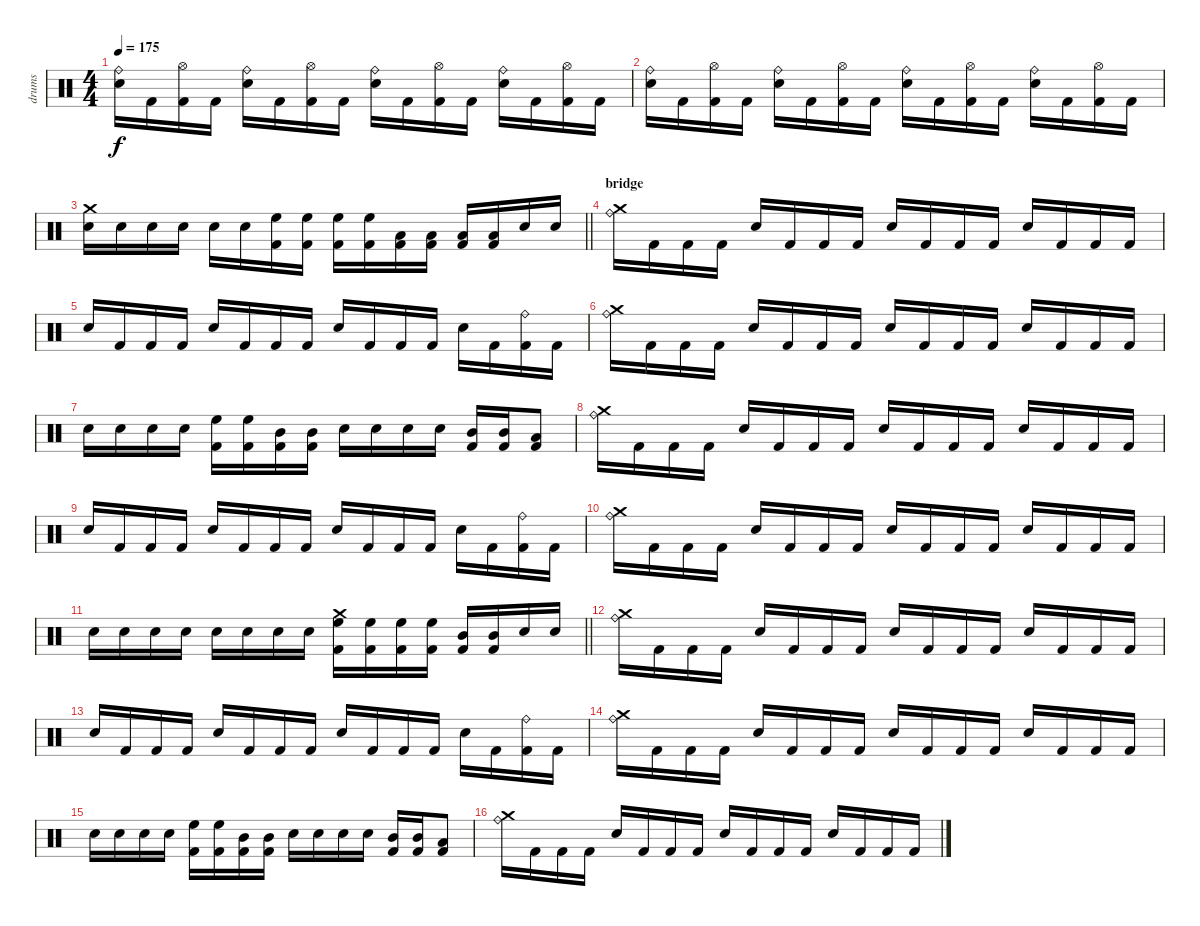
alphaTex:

\track ("drums" "drums") {instrument percussion}
\staff {score}
\articulation defaults
\ts (4 4)
\tempo 175
\clef neutral
\ks c
("Ride (bell)" "Snare (hit) 2").16{dy f} "Kick (hit) 2".16 ("Hi-Hat (open)" "Kick (hit) 2").16 "Kick (hit) 2".16 ("Ride (bell)" "Snare (hit) 2").16 "Kick (hit) 2".16 ("Hi-Hat (open)" "Kick (hit) 2").16 "Kick (hit) 2".16 ("Ride (bell)" "Snare (hit) 2").16 "Kick (hit) 2".16 ("Hi-Hat (open)" "Kick (hit) 2").16 "Kick (hit) 2".16 ("Ride (bell)" "Snare (hit) 2").16 "Kick (hit) 2".16 ("Hi-Hat (open)" "Kick (hit) 2").16 "Kick (hit) 2".16 |
("Ride (bell)" "Snare (hit) 2").16 "Kick (hit) 2".16 ("Hi-Hat (open)" "Kick (hit) 2").16 "Kick (hit) 2".16 ("Ride (bell)" "Snare (hit) 2").16 "Kick (hit) 2".16 ("Hi-Hat (open)" "Kick (hit) 2").16 "Kick (hit) 2".16 ("Ride (bell)" "Snare (hit) 2").16 "Kick (hit) 2".16 ("Hi-Hat (open)" "Kick (hit) 2").16 "Kick (hit) 2".16 ("Ride (bell)" "Snare (hit) 2").16 "Kick (hit) 2".16 ("Hi-Hat (open)" "Kick (hit) 2").16 "Kick (hit) 2".16 |
\barLineRight lightlight
("Crash medium (hit)" "Snare (hit) 2").16 "Snare (hit) 2".16 "Snare (hit) 2".16 "Snare (hit) 2".16 "Snare (hit) 2".16 "Snare (hit) 2".16 ("High Floor Tom (hit)" "Kick (hit) 2").16 ("High Floor Tom (hit)" "Kick (hit) 2").16 ("High Floor Tom (hit)" "Kick (hit) 2").16 ("High Floor Tom (hit)" "Kick (hit) 2").16 ("Low Tom (hit)" "Kick (hit) 2").16 ("Low Tom (hit)" "Kick (hit) 2").16 ("Low Tom (hit)" "Kick (hit) 2").16 ("Low Tom (hit)" "Kick (hit) 2").16 "Snare (hit) 2".16 "Snare (hit) 2".16 |
\section ("" "bridge")
("Crash medium (hit)" "Ride (bell)").16 "Kick (hit) 2".16 "Kick (hit) 2".16 "Kick (hit) 2".16 "Snare (hit) 2".16 "Kick (hit) 2".16 "Kick (hit) 2".16 "Kick (hit) 2".16 "Snare (hit) 2".16 "Kick (hit) 2".16 "Kick (hit) 2".16 "Kick (hit) 2".16 "Snare (hit) 2".16 "Kick (hit) 2".16 "Kick (hit) 2".16 "Kick (hit) 2".16 |
"Snare (hit) 2".16 "Kick (hit) 2".16 "Kick (hit) 2".16 "Kick (hit) 2".16 "Snare (hit) 2".16 "Kick (hit) 2".16 "Kick (hit) 2".16 "Kick (hit) 2".16 "Snare (hit) 2".16 "Kick (hit) 2".16 "Kick (hit) 2".16 "Kick (hit) 2".16 "Snare (hit) 2".16 "Kick (hit) 2".16 ("Ride (bell)" "Kick (hit) 2").16 "Kick (hit) 2".16 |
("Crash medium (hit)" "Ride (bell)").16 "Kick (hit) 2".16 "Kick (hit) 2".16 "Kick (hit) 2".16 "Snare (hit) 2".16 "Kick (hit) 2".16 "Kick (hit) 2".16 "Kick (hit) 2".16 "Snare (hit) 2".16 "Kick (hit) 2".16 "Kick (hit) 2".16 "Kick (hit) 2".16 "Snare (hit) 2".16 "Kick (hit) 2".16 "Kick (hit) 2".16 "Kick (hit) 2".16 |
"Snare (hit) 2".16 "Snare (hit) 2".16 "Snare (hit) 2".16 "Snare (hit) 2".16 ("High Floor Tom (hit)" "Kick (hit) 2").16 ("High Floor Tom (hit)" "Kick (hit) 2").16 ("Mid Tom (hit)" "Kick (hit) 2").16 ("Mid Tom (hit)" "Kick (hit) 2").16 "Snare (hit) 2".16 "Snare (hit) 2".16 "Snare (hit) 2".16 "Snare (hit) 2".16 ("Mid Tom (hit)" "Kick (hit) 2").16 ("Mid Tom (hit)" "Kick (hit) 2").16 ("Low Tom (hit)" "Kick (hit) 2").8 |
("Crash medium (hit)" "Ride (bell)").16 "Kick (hit) 2".16 "Kick (hit) 2".16 "Kick (hit) 2".16 "Snare (hit) 2".16 "Kick (hit) 2".16 "Kick (hit) 2".16 "Kick (hit) 2".16 "Snare (hit) 2".16 "Kick (hit) 2".16 "Kick (hit) 2".16 "Kick (hit) 2".16 "Snare (hit) 2".16 "Kick (hit) 2".16 "Kick (hit) 2".16 "Kick (hit) 2".16 |
"Snare (hit) 2".16 "Kick (hit) 2".16 "Kick (hit) 2".16 "Kick (hit) 2".16 "Snare (hit) 2".16 "Kick (hit) 2".16 "Kick (hit) 2".16 "Kick (hit) 2".16 "Snare (hit) 2".16 "Kick (hit) 2".16 "Kick (hit) 2".16 "Kick (hit) 2".16 "Snare (hit) 2".16 "Kick (hit) 2".16 ("Ride (bell)" "Kick (hit) 2").16 "Kick (hit) 2".16 |
("Crash medium (hit)" "Ride (bell)").16 "Kick (hit) 2".16 "Kick (hit) 2".16 "Kick (hit) 2".16 "Snare (hit) 2".16 "Kick (hit) 2".16 "Kick (hit) 2".16 "Kick (hit) 2".16 "Snare (hit) 2".16 "Kick (hit) 2".16 "Kick (hit) 2".16 "Kick (hit) 2".16 "Snare (hit) 2".16 "Kick (hit) 2".16 "Kick (hit) 2".16 "Kick (hit) 2".16 |
\barLineRight lightlight "Snare (hit) 2".16 "Snare (hit) 2".16 "Snare (hit) 2".16 "Snare (hit) 2".16 "Snare (hit) 2".16 "Snare (hit) 2".16 "Snare (hit) 2".16 "Snare (hit) 2".16
("Crash medium (hit)" "High Floor Tom (hit)" "Kick (hit) 2").16 ("High Floor Tom (hit)" "Kick (hit) 2").16 ("High Floor Tom (hit)" "Kick (hit) 2").16 ("High Floor Tom (hit)" "Kick (hit) 2").16 ("Mid Tom (hit)" "Kick (hit) 2").16 ("Mid Tom (hit)" "Kick (hit) 2").16 "Snare (hit) 2".16 "Snare (hit) 2".16 |
("Crash medium (hit)" "Ride (bell)").16 "Kick (hit) 2".16 "Kick (hit) 2".16 "Kick (hit) 2".16 "Snare (hit) 2".16 "Kick (hit) 2".16 "Kick (hit) 2".16 "Kick (hit) 2".16 "Snare (hit) 2".16 "Kick (hit) 2".16 "Kick (hit) 2".16 "Kick (hit) 2".16 "Snare (hit) 2".16 "Kick (hit) 2".16 "Kick (hit) 2".16 "Kick (hit) 2".16 |
"Snare (hit) 2".16 "Kick (hit) 2".16 "Kick (hit) 2".16 "Kick (hit) 2".16 "Snare (hit) 2".16 "Kick (hit) 2".16 "Kick (hit) 2".16 "Kick (hit) 2".16 "Snare (hit) 2".16 "Kick (hit) 2".16 "Kick (hit) 2".16 "Kick (hit) 2".16 "Snare (hit) 2".16 "Kick (hit) 2".16 ("Ride (bell)" "Kick (hit) 2").16 "Kick (hit) 2".16 |
("Crash medium (hit)" "Ride (bell)").16 "Kick (hit) 2".16 "Kick (hit) 2".16 "Kick (hit) 2".16 "Snare (hit) 2".16 "Kick (hit) 2".16 "Kick (hit) 2".16 "Kick (hit) 2".16 "Snare (hit) 2".16 "Kick (hit) 2".16 "Kick (hit) 2".16 "Kick (hit) 2".16 "Snare (hit) 2".16 "Kick (hit) 2".16 "Kick (hit) 2".16 "Kick (hit) 2".16 |
"Snare (hit) 2".16 "Snare (hit) 2".16 "Snare (hit) 2".16 "Snare (hit) 2".16 ("High Floor Tom (hit)" "Kick (hit) 2").16 ("High Floor Tom (hit)" "Kick (hit) 2").16 ("Mid Tom (hit)" "Kick (hit) 2").16 ("Mid Tom (hit)" "Kick (hit) 2").16 "Snare (hit) 2".16 "Snare (hit) 2".16 "Snare (hit) 2".16 "Snare (hit) 2".16 ("Mid Tom (hit)" "Kick (hit) 2").16 ("Mid Tom (hit)" "Kick (hit) 2").16 ("Low Tom (hit)" "Kick (hit) 2").8 |
("Crash medium (hit)" "Ride (bell)").16 "Kick (hit) 2".16 "Kick (hit) 2".16 "Kick (hit) 2".16 "Snare (hit) 2".16 "Kick (hit) 2".16 "Kick (hit) 2".16 "Kick (hit) 2".16 "Snare (hit) 2".16 "Kick (hit) 2".16 "Kick (hit) 2".16 "Kick (hit) 2".16 "Snare (hit) 2".16 "Kick (hit) 2".16 "Kick (hit) 2".16 "Kick (hit) 2".16
